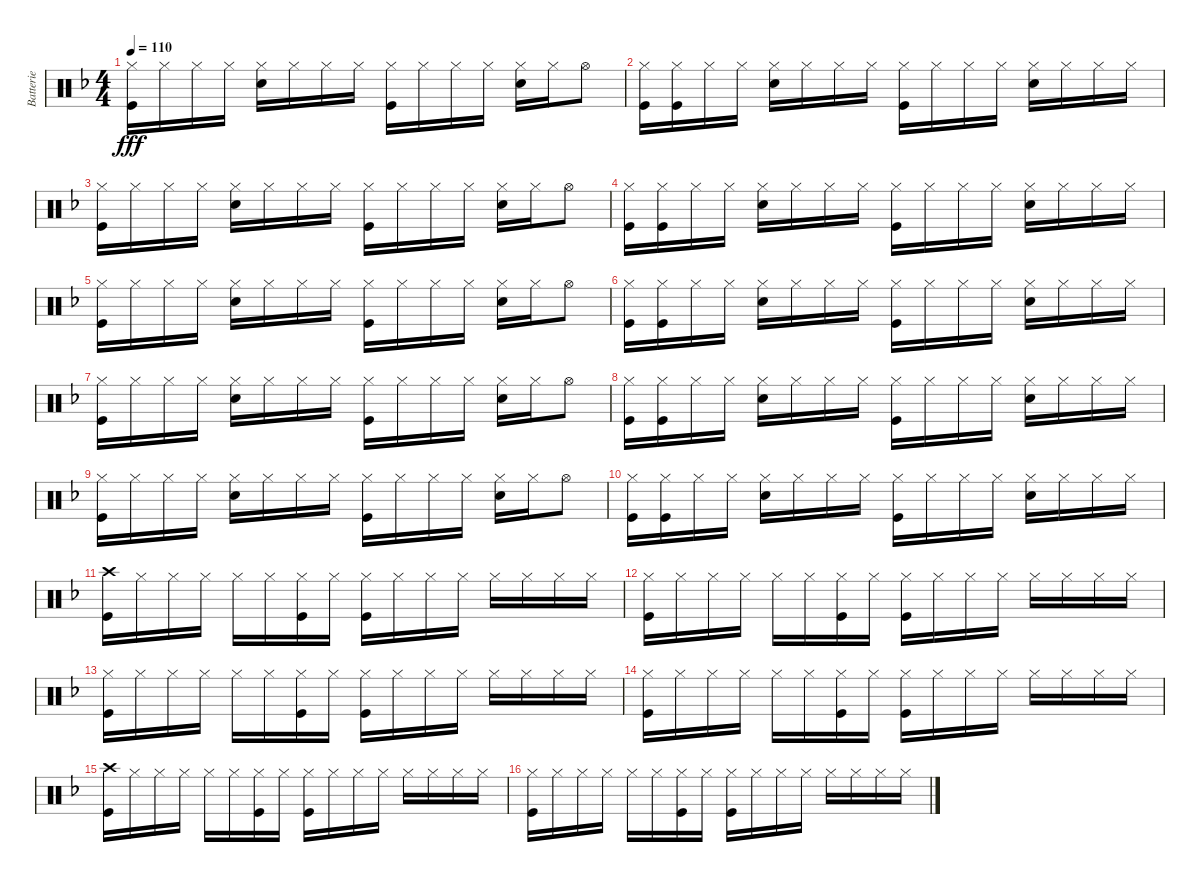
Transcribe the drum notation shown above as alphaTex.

\track ("Batterie" "Batterie") {instrument percussion}
\staff {score}
\articulation defaults
\ts (4 4)
\tempo 110
\clef neutral
\ks f
("Hi-Hat (closed)" "Kick (hit)").16{dy fff} "Hi-Hat (closed)".16 "Hi-Hat (closed)".16 "Hi-Hat (closed)".16 ("Hi-Hat (closed)" "Snare (hit) 2").16 "Hi-Hat (closed)".16 "Hi-Hat (closed)".16 "Hi-Hat (closed)".16 ("Hi-Hat (closed)" "Kick (hit)").16 "Hi-Hat (closed)".16 "Hi-Hat (closed)".16 "Hi-Hat (closed)".16 ("Hi-Hat (closed)" "Snare (hit) 2").16 "Hi-Hat (closed)".16 "Hi-Hat (open)".8 |
("Hi-Hat (closed)" "Kick (hit)").16 ("Hi-Hat (closed)" "Kick (hit)").16 "Hi-Hat (closed)".16 "Hi-Hat (closed)".16 ("Hi-Hat (closed)" "Snare (hit) 2").16 "Hi-Hat (closed)".16 "Hi-Hat (closed)".16 "Hi-Hat (closed)".16 ("Hi-Hat (closed)" "Kick (hit)").16 "Hi-Hat (closed)".16 "Hi-Hat (closed)".16 "Hi-Hat (closed)".16 ("Hi-Hat (closed)" "Snare (hit) 2").16 "Hi-Hat (closed)".16 "Hi-Hat (closed)".16 "Hi-Hat (closed)".16 |
("Hi-Hat (closed)" "Kick (hit)").16 "Hi-Hat (closed)".16 "Hi-Hat (closed)".16 "Hi-Hat (closed)".16 ("Hi-Hat (closed)" "Snare (hit) 2").16 "Hi-Hat (closed)".16 "Hi-Hat (closed)".16 "Hi-Hat (closed)".16 ("Hi-Hat (closed)" "Kick (hit)").16 "Hi-Hat (closed)".16 "Hi-Hat (closed)".16 "Hi-Hat (closed)".16 ("Hi-Hat (closed)" "Snare (hit) 2").16 "Hi-Hat (closed)".16 "Hi-Hat (open)".8 |
("Hi-Hat (closed)" "Kick (hit)").16 ("Hi-Hat (closed)" "Kick (hit)").16 "Hi-Hat (closed)".16 "Hi-Hat (closed)".16 ("Hi-Hat (closed)" "Snare (hit) 2").16 "Hi-Hat (closed)".16 "Hi-Hat (closed)".16 "Hi-Hat (closed)".16 ("Hi-Hat (closed)" "Kick (hit)").16 "Hi-Hat (closed)".16 "Hi-Hat (closed)".16 "Hi-Hat (closed)".16 ("Hi-Hat (closed)" "Snare (hit) 2").16 "Hi-Hat (closed)".16 "Hi-Hat (closed)".16 "Hi-Hat (closed)".16 |
("Hi-Hat (closed)" "Kick (hit)").16 "Hi-Hat (closed)".16 "Hi-Hat (closed)".16 "Hi-Hat (closed)".16 ("Hi-Hat (closed)" "Snare (hit) 2").16 "Hi-Hat (closed)".16 "Hi-Hat (closed)".16 "Hi-Hat (closed)".16 ("Hi-Hat (closed)" "Kick (hit)").16 "Hi-Hat (closed)".16 "Hi-Hat (closed)".16 "Hi-Hat (closed)".16 ("Hi-Hat (closed)" "Snare (hit) 2").16 "Hi-Hat (closed)".16 "Hi-Hat (open)".8 |
("Hi-Hat (closed)" "Kick (hit)").16 ("Hi-Hat (closed)" "Kick (hit)").16 "Hi-Hat (closed)".16 "Hi-Hat (closed)".16 ("Hi-Hat (closed)" "Snare (hit) 2").16 "Hi-Hat (closed)".16 "Hi-Hat (closed)".16 "Hi-Hat (closed)".16 ("Hi-Hat (closed)" "Kick (hit)").16 "Hi-Hat (closed)".16 "Hi-Hat (closed)".16 "Hi-Hat (closed)".16 ("Hi-Hat (closed)" "Snare (hit) 2").16 "Hi-Hat (closed)".16 "Hi-Hat (closed)".16 "Hi-Hat (closed)".16 |
("Hi-Hat (closed)" "Kick (hit)").16 "Hi-Hat (closed)".16 "Hi-Hat (closed)".16 "Hi-Hat (closed)".16 ("Hi-Hat (closed)" "Snare (hit) 2").16 "Hi-Hat (closed)".16 "Hi-Hat (closed)".16 "Hi-Hat (closed)".16 ("Hi-Hat (closed)" "Kick (hit)").16 "Hi-Hat (closed)".16 "Hi-Hat (closed)".16 "Hi-Hat (closed)".16 ("Hi-Hat (closed)" "Snare (hit) 2").16 "Hi-Hat (closed)".16 "Hi-Hat (open)".8 |
("Hi-Hat (closed)" "Kick (hit)").16 ("Hi-Hat (closed)" "Kick (hit)").16 "Hi-Hat (closed)".16 "Hi-Hat (closed)".16 ("Hi-Hat (closed)" "Snare (hit) 2").16 "Hi-Hat (closed)".16 "Hi-Hat (closed)".16 "Hi-Hat (closed)".16 ("Hi-Hat (closed)" "Kick (hit)").16 "Hi-Hat (closed)".16 "Hi-Hat (closed)".16 "Hi-Hat (closed)".16 ("Hi-Hat (closed)" "Snare (hit) 2").16 "Hi-Hat (closed)".16 "Hi-Hat (closed)".16 "Hi-Hat (closed)".16 |
("Hi-Hat (closed)" "Kick (hit)").16 "Hi-Hat (closed)".16 "Hi-Hat (closed)".16 "Hi-Hat (closed)".16 ("Hi-Hat (closed)" "Snare (hit) 2").16 "Hi-Hat (closed)".16 "Hi-Hat (closed)".16 "Hi-Hat (closed)".16 ("Hi-Hat (closed)" "Kick (hit)").16 "Hi-Hat (closed)".16 "Hi-Hat (closed)".16 "Hi-Hat (closed)".16 ("Hi-Hat (closed)" "Snare (hit) 2").16 "Hi-Hat (closed)".16 "Hi-Hat (open)".8 |
("Hi-Hat (closed)" "Kick (hit)").16 ("Hi-Hat (closed)" "Kick (hit)").16 "Hi-Hat (closed)".16 "Hi-Hat (closed)".16 ("Hi-Hat (closed)" "Snare (hit) 2").16 "Hi-Hat (closed)".16 "Hi-Hat (closed)".16 "Hi-Hat (closed)".16 ("Hi-Hat (closed)" "Kick (hit)").16 "Hi-Hat (closed)".16 "Hi-Hat (closed)".16 "Hi-Hat (closed)".16 ("Hi-Hat (closed)" "Snare (hit) 2").16 "Hi-Hat (closed)".16 "Hi-Hat (closed)".16 "Hi-Hat (closed)".16 |
("Crash high (hit)" "Kick (hit)").16 "Hi-Hat (closed)".16 "Hi-Hat (closed)".16 "Hi-Hat (closed)".16 "Hi-Hat (closed)".16 "Hi-Hat (closed)".16 ("Hi-Hat (closed)" "Kick (hit)").16 "Hi-Hat (closed)".16 ("Hi-Hat (closed)" "Kick (hit)").16 "Hi-Hat (closed)".16 "Hi-Hat (closed)".16 "Hi-Hat (closed)".16 "Hi-Hat (closed)".16 "Hi-Hat (closed)".16 "Hi-Hat (closed)".16 "Hi-Hat (closed)".16 |
("Hi-Hat (closed)" "Kick (hit)").16 "Hi-Hat (closed)".16 "Hi-Hat (closed)".16 "Hi-Hat (closed)".16 "Hi-Hat (closed)".16 "Hi-Hat (closed)".16 ("Hi-Hat (closed)" "Kick (hit)").16 "Hi-Hat (closed)".16 ("Hi-Hat (closed)" "Kick (hit)").16 "Hi-Hat (closed)".16 "Hi-Hat (closed)".16 "Hi-Hat (closed)".16 "Hi-Hat (closed)".16 "Hi-Hat (closed)".16 "Hi-Hat (closed)".16 "Hi-Hat (closed)".16 |
("Hi-Hat (closed)" "Kick (hit)").16 "Hi-Hat (closed)".16 "Hi-Hat (closed)".16 "Hi-Hat (closed)".16 "Hi-Hat (closed)".16 "Hi-Hat (closed)".16 ("Hi-Hat (closed)" "Kick (hit)").16 "Hi-Hat (closed)".16 ("Hi-Hat (closed)" "Kick (hit)").16 "Hi-Hat (closed)".16 "Hi-Hat (closed)".16 "Hi-Hat (closed)".16 "Hi-Hat (closed)".16 "Hi-Hat (closed)".16 "Hi-Hat (closed)".16 "Hi-Hat (closed)".16 |
("Hi-Hat (closed)" "Kick (hit)").16 "Hi-Hat (closed)".16 "Hi-Hat (closed)".16 "Hi-Hat (closed)".16 "Hi-Hat (closed)".16 "Hi-Hat (closed)".16 ("Hi-Hat (closed)" "Kick (hit)").16 "Hi-Hat (closed)".16 ("Hi-Hat (closed)" "Kick (hit)").16 "Hi-Hat (closed)".16 "Hi-Hat (closed)".16 "Hi-Hat (closed)".16 "Hi-Hat (closed)".16 "Hi-Hat (closed)".16 "Hi-Hat (closed)".16 "Hi-Hat (closed)".16 |
("Crash high (hit)" "Kick (hit)").16 "Hi-Hat (closed)".16 "Hi-Hat (closed)".16 "Hi-Hat (closed)".16 "Hi-Hat (closed)".16 "Hi-Hat (closed)".16 ("Hi-Hat (closed)" "Kick (hit)").16 "Hi-Hat (closed)".16 ("Hi-Hat (closed)" "Kick (hit)").16 "Hi-Hat (closed)".16 "Hi-Hat (closed)".16 "Hi-Hat (closed)".16 "Hi-Hat (closed)".16 "Hi-Hat (closed)".16 "Hi-Hat (closed)".16 "Hi-Hat (closed)".16 |
("Hi-Hat (closed)" "Kick (hit)").16 "Hi-Hat (closed)".16 "Hi-Hat (closed)".16 "Hi-Hat (closed)".16 "Hi-Hat (closed)".16 "Hi-Hat (closed)".16 ("Hi-Hat (closed)" "Kick (hit)").16 "Hi-Hat (closed)".16 ("Hi-Hat (closed)" "Kick (hit)").16 "Hi-Hat (closed)".16 "Hi-Hat (closed)".16 "Hi-Hat (closed)".16 "Hi-Hat (closed)".16 "Hi-Hat (closed)".16 "Hi-Hat (closed)".16 "Hi-Hat (closed)".16
